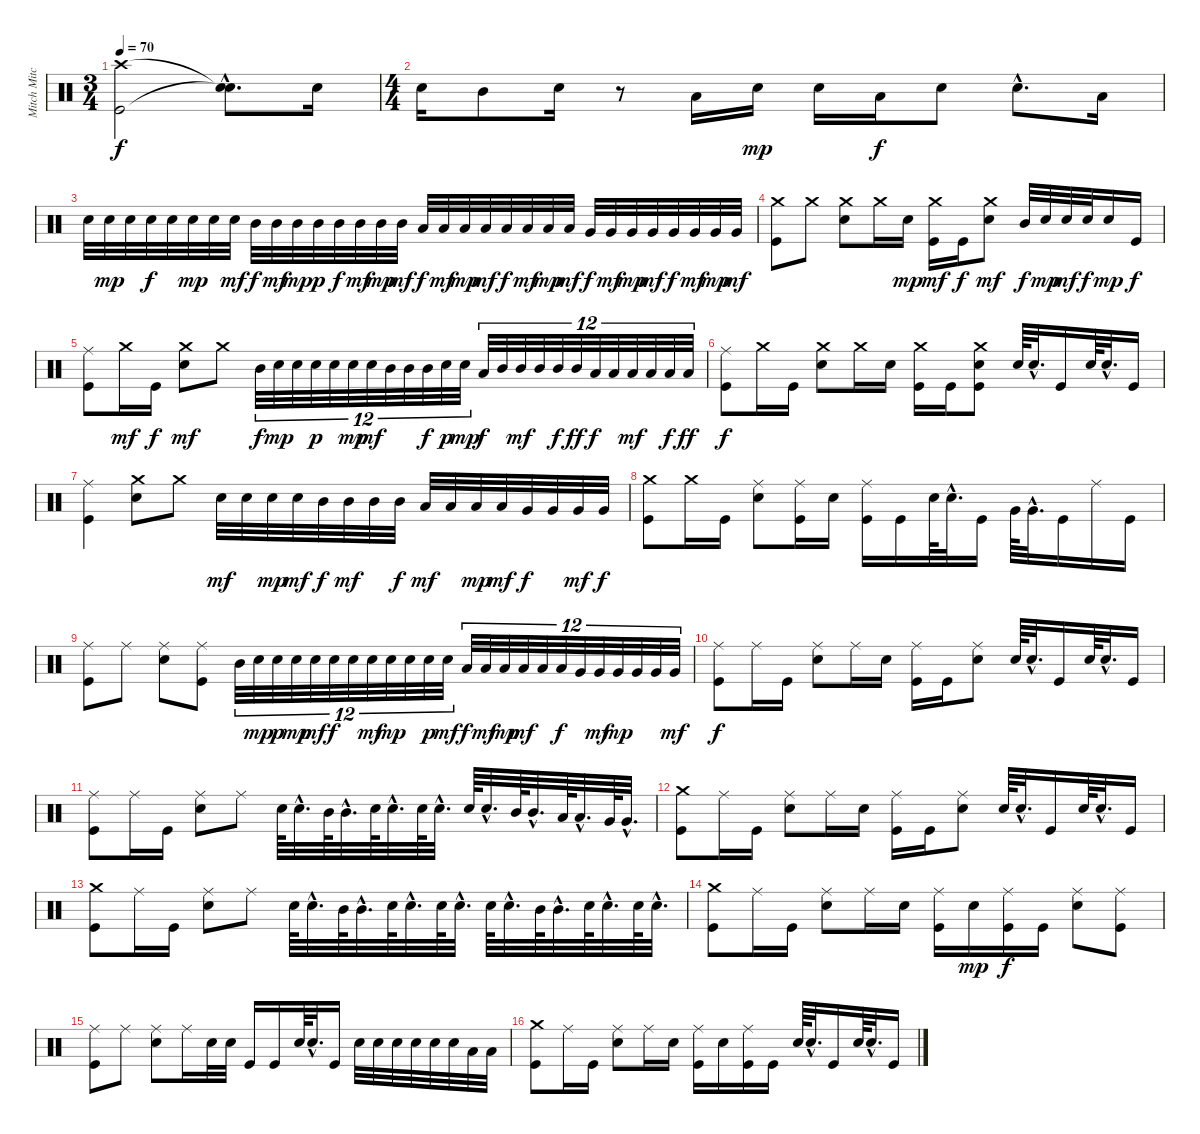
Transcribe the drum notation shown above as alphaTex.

\track ("Mitch Mitchell" "Mitch Mitc") {instrument percussion}
\staff {score}
\articulation defaults
\ts (3 4)
\tempo 70
\clef neutral
\ks c
("Crash high (hit)" "Kick (hit)").2{dy f} ("Snare (hit)"{hac t} "Snare (hit)"{hac t}).8{d} "Electric Snare (hit)".16 |
\ts (4 4)
"Electric Snare (hit)".16 "Mid Tom (hit)".8 "Electric Snare (hit)".16 r.8 "Low Tom (hit)".16 "Electric Snare (hit)".16{dy mp} "Electric Snare (hit)".16 "Low Tom (hit)".16{dy f} "Electric Snare (hit)".8 "Electric Snare (hit)"{hac}.8{d} "Low Tom (hit)".16 |
"Electric Snare (hit)".32 "Electric Snare (hit)".32{dy mp} "Electric Snare (hit)".32 "Electric Snare (hit)".32{dy f} "Electric Snare (hit)".32 "Electric Snare (hit)".32{dy mp} "Electric Snare (hit)".32 "Electric Snare (hit)".32{dy mf} "Mid Tom (hit)".32{dy f} "Mid Tom (hit)".32{dy mf} "Mid Tom (hit)".32{dy mp} "Mid Tom (hit)".32{dy p} "Mid Tom (hit)".32{dy f} "Mid Tom (hit)".32{dy mf} "Mid Tom (hit)".32{dy mp} "Mid Tom (hit)".32{dy mf} "Low Tom (hit)".32{dy f} "Low Tom (hit)".32{dy mf} "Low Tom (hit)".32{dy mp} "Low Tom (hit)".32{dy mf} "Low Tom (hit)".32{dy f} "Low Tom (hit)".32{dy mf} "Low Tom (hit)".32{dy mp} "Low Tom (hit)".32{dy mf} "Very Low Tom (hit)".32{dy f} "Very Low Tom (hit)".32{dy mf} "Very Low Tom (hit)".32{dy mp} "Very Low Tom (hit)".32{dy mf} "Very Low Tom (hit)".32{dy f} "Very Low Tom (hit)".32{dy mf} "Very Low Tom (hit)".32{dy mp} "Very Low Tom (hit)".32{dy mf} |
("Crash medium (hit)" "Kick (hit)").8 "Crash medium (hit)".8 ("Crash medium (hit)" "Electric Snare (hit)").8 "Crash medium (hit)".16 "Electric Snare (hit)".16{dy mp} ("Crash medium (hit)" "Kick (hit)").16{dy mf} "Kick (hit)".16{dy f} ("Crash medium (hit)" "Electric Snare (hit)").8{dy mf} "Mid Tom (hit)".32{dy f} "Electric Snare (hit)".32{dy mp} "Electric Snare (hit)".32{dy mf} "Electric Snare (hit)".32{dy f} "Electric Snare (hit)".16{dy mp} "Kick (hit)".16{dy f} |
("Ride (middle)" "Kick (hit)").8 "Crash medium (hit)".16{dy mf} "Kick (hit)".16{dy f} ("Crash medium (hit)" "Electric Snare (hit)").8{dy mf} "Crash medium (hit)".8 "Mid Tom (hit)".32{tu (12 8) dy f} "Electric Snare (hit)".32{tu (12 8) dy mp} "Electric Snare (hit)".32{tu (12 8)} "Electric Snare (hit)".32{tu (12 8) dy p} "Electric Snare (hit)".32{tu (12 8)} "Electric Snare (hit)".32{tu (12 8) dy mp} "Electric Snare (hit)".32{tu (12 8) dy mf} "Mid Tom (hit)".32{tu (12 8)} "Mid Tom (hit)".32{tu (12 8)} "Mid Tom (hit)".32{tu (12 8) dy f} "Electric Snare (hit)".32{tu (12 8) dy p} "Electric Snare (hit)".32{tu (12 8) dy mp} "Low Tom (hit)".32{tu (12 8) dy f} "Mid Tom (hit)".32{tu (12 8)} "Mid Tom (hit)".32{tu (12 8) dy mf} "Mid Tom (hit)".32{tu (12 8)} "Mid Tom (hit)".32{tu (12 8) dy f} "Mid Tom (hit)".32{tu (12 8) dy ff} "Low Tom (hit)".32{tu (12 8) dy f} "Low Tom (hit)".32{tu (12 8)} "Low Tom (hit)".32{tu (12 8) dy mf} "Low Tom (hit)".32{tu (12 8)} "Low Tom (hit)".32{tu (12 8) dy f} "Low Tom (hit)".32{tu (12 8) dy ff} |
("Ride (middle)" "Kick (hit)").8{dy f} "Crash medium (hit)".16 "Kick (hit)".16 ("Crash medium (hit)" "Electric Snare (hit)").8 "Crash medium (hit)".16 "Electric Snare (hit)".16 ("Crash medium (hit)" "Kick (hit)").16 "Kick (hit)".16 ("Crash medium (hit)" "Electric Snare (hit)" "Kick (hit)").8 "Electric Snare (hit)".64 "Electric Snare (hit)"{hac}.32{d} "Kick (hit)".16 "Electric Snare (hit)".64 "Electric Snare (hit)"{hac}.32{d} "Kick (hit)".16 |
("Ride (middle)" "Kick (hit)").4 ("Crash medium (hit)" "Electric Snare (hit)").8 "Crash medium (hit)".8 "Electric Snare (hit)".32{dy mf} "Electric Snare (hit)".32 "Electric Snare (hit)".32{dy mp} "Electric Snare (hit)".32{dy mf} "Mid Tom (hit)".32{dy f} "Mid Tom (hit)".32{dy mf} "Mid Tom (hit)".32 "Mid Tom (hit)".32{dy f} "Low Tom (hit)".32{dy mf} "Low Tom (hit)".32 "Low Tom (hit)".32{dy mp} "Low Tom (hit)".32{dy mf} "Very Low Tom (hit)".32{dy f} "Very Low Tom (hit)".32 "Very Low Tom (hit)".32{dy mf} "Very Low Tom (hit)".32{dy f} |
("Crash medium (hit)" "Kick (hit)").8 "Crash medium (hit)".16 "Kick (hit)".16 ("Ride (middle)" "Electric Snare (hit)").8 ("Ride (middle)" "Kick (hit)").16 "Electric Snare (hit)".16 ("Ride (middle)" "Kick (hit)").16 "Kick (hit)".16 "Electric Snare (hit)".64 "Electric Snare (hit)"{hac}.32{d} "Kick (hit)".16 "Very Low Tom (hit)".64 "Very Low Tom (hit)"{hac}.32{d} "Kick (hit)".16 "Ride (middle)".16 "Kick (hit)".16 |
("Ride (middle)" "Kick (hit)").8 "Ride (middle)".8 ("Ride (middle)" "Electric Snare (hit)").8 ("Ride (middle)" "Kick (hit)").8 "Mid Tom (hit)".32{tu (12 8)} "Electric Snare (hit)".32{tu (12 8) dy mp} "Electric Snare (hit)".32{tu (12 8) dy p} "Electric Snare (hit)".32{tu (12 8) dy mp} "Electric Snare (hit)".32{tu (12 8) dy mf} "Electric Snare (hit)".32{tu (12 8) dy f} "Electric Snare (hit)".32{tu (12 8)} "Electric Snare (hit)".32{tu (12 8) dy mf} "Electric Snare (hit)".32{tu (12 8) dy mp} "Electric Snare (hit)".32{tu (12 8)} "Electric Snare (hit)".32{tu (12 8) dy p} "Electric Snare (hit)".32{tu (12 8) dy mf} "Low Tom (hit)".32{tu (12 8) dy f} "Low Tom (hit)".32{tu (12 8) dy mf} "Low Tom (hit)".32{tu (12 8) dy mp} "Low Tom (hit)".32{tu (12 8) dy mf} "Low Tom (hit)".32{tu (12 8)} "Low Tom (hit)".32{tu (12 8) dy f} "Very Low Tom (hit)".32{tu (12 8)} "Very Low Tom (hit)".32{tu (12 8) dy mf} "Very Low Tom (hit)".32{tu (12 8) dy mp} "Very Low Tom (hit)".32{tu (12 8)} "Very Low Tom (hit)".32{tu (12 8)} "Very Low Tom (hit)".32{tu (12 8) dy mf} |
("Ride (middle)" "Kick (hit)").8{dy f} "Ride (middle)".16 "Kick (hit)".16 ("Ride (middle)" "Electric Snare (hit)").8 "Ride (middle)".16 "Electric Snare (hit)".16 ("Ride (middle)" "Kick (hit)").16 "Kick (hit)".16 ("Ride (middle)" "Electric Snare (hit)").8 "Electric Snare (hit)".64 "Electric Snare (hit)"{hac}.32{d} "Kick (hit)".16 "Electric Snare (hit)".64 "Electric Snare (hit)"{hac}.32{d} "Kick (hit)".16 |
("Ride (middle)" "Kick (hit)").8 "Ride (middle)".16 "Kick (hit)".16 ("Ride (middle)" "Electric Snare (hit)").8 "Ride (middle)".8 "Electric Snare (hit)".64 "Electric Snare (hit)"{hac}.32{d} "Mid Tom (hit)".64 "Mid Tom (hit)"{hac}.32{d} "Electric Snare (hit)".64 "Electric Snare (hit)"{hac}.32{d} "Electric Snare (hit)".64 "Electric Snare (hit)"{hac}.32{d} "Electric Snare (hit)".64 "Electric Snare (hit)"{hac}.32{d} "Mid Tom (hit)".64 "Mid Tom (hit)"{hac}.32{d} "Low Tom (hit)".64 "Low Tom (hit)"{hac}.32{d} "Very Low Tom (hit)".64 "Very Low Tom (hit)"{hac}.32{d} |
("Crash medium (hit)" "Kick (hit)").8 "Ride (middle)".16 "Kick (hit)".16 ("Ride (middle)" "Electric Snare (hit)").8 "Ride (middle)".16 "Electric Snare (hit)".16 ("Ride (middle)" "Kick (hit)").16 "Kick (hit)".16 ("Ride (middle)" "Electric Snare (hit)").8 "Electric Snare (hit)".64 "Electric Snare (hit)"{hac}.32{d} "Kick (hit)".16 "Electric Snare (hit)".64 "Electric Snare (hit)"{hac}.32{d} "Kick (hit)".16 |
("Crash medium (hit)" "Kick (hit)").8 "Ride (middle)".16 "Kick (hit)".16 ("Ride (middle)" "Electric Snare (hit)").8 "Ride (middle)".8 "Electric Snare (hit)".64 "Electric Snare (hit)"{hac}.32{d} "Mid Tom (hit)".64 "Mid Tom (hit)"{hac}.32{d} "Electric Snare (hit)".64 "Electric Snare (hit)"{hac}.32{d} "Electric Snare (hit)".64 "Electric Snare (hit)"{hac}.32{d} "Electric Snare (hit)".64 "Electric Snare (hit)"{hac}.32{d} "Mid Tom (hit)".64 "Mid Tom (hit)"{hac}.32{d} "Electric Snare (hit)".64 "Electric Snare (hit)"{hac}.32{d} "Electric Snare (hit)".64 "Electric Snare (hit)"{hac}.32{d} |
("Crash medium (hit)" "Kick (hit)").8 "Ride (middle)".16 "Kick (hit)".16 ("Ride (middle)" "Electric Snare (hit)").8 "Ride (middle)".16 "Electric Snare (hit)".16 ("Ride (middle)" "Kick (hit)").16 "Electric Snare (hit)".16{dy mp} ("Ride (middle)" "Kick (hit)").16{dy f} "Kick (hit)".16 ("Ride (middle)" "Electric Snare (hit)").8 ("Ride (middle)" "Kick (hit)").8 |
("Ride (middle)" "Kick (hit)").8 "Ride (middle)".8 ("Ride (middle)" "Electric Snare (hit)").8 "Ride (middle)".16 "Electric Snare (hit)".32 "Electric Snare (hit)".32 "Kick (hit)".16 "Kick (hit)".16 "Electric Snare (hit)".64 "Electric Snare (hit)"{hac}.32{d} "Kick (hit)".16 "Electric Snare (hit)".32 "Electric Snare (hit)".32 "Electric Snare (hit)".32 "Electric Snare (hit)".32 "Electric Snare (hit)".32 "Electric Snare (hit)".32 "Low Tom (hit)".32 "Low Tom (hit)".32 |
("Crash medium (hit)" "Kick (hit)").8 "Ride (middle)".16 "Kick (hit)".16 ("Ride (middle)" "Electric Snare (hit)").8 "Ride (middle)".16 "Electric Snare (hit)".16 ("Ride (middle)" "Kick (hit)").16 "Electric Snare (hit)".16 ("Ride (middle)" "Kick (hit)").16 "Kick (hit)".16 "Electric Snare (hit)".64 "Electric Snare (hit)"{hac}.32{d} "Kick (hit)".16 "Electric Snare (hit)".64 "Electric Snare (hit)"{hac}.32{d} "Kick (hit)".16
